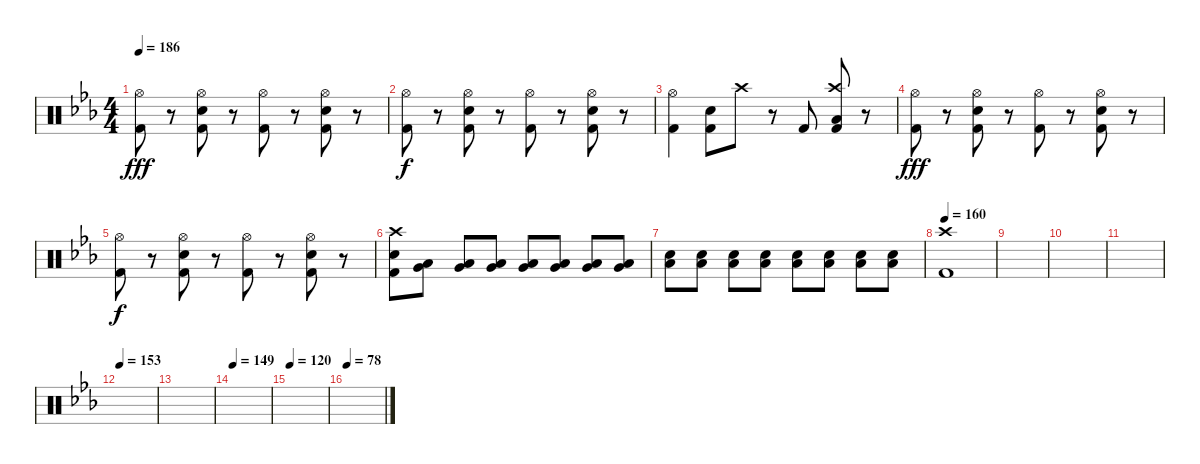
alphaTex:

\track "" {instrument percussion}
\staff {score}
\articulation defaults
\ts (4 4)
\tempo 186
\clef neutral
\ks eb
("Hi-Hat (open)" "Kick (hit) 2").8{dy fff} r.8 ("Hi-Hat (open)" "Snare (hit) 2" "Kick (hit) 2").8 r.8 ("Hi-Hat (open)" "Kick (hit) 2").8 r.8 ("Hi-Hat (open)" "Snare (hit) 2" "Kick (hit) 2").8 r.8 |
("Hi-Hat (open)" "Kick (hit) 2").8{dy f} r.8 ("Hi-Hat (open)" "Snare (hit) 2" "Kick (hit) 2").8 r.8 ("Hi-Hat (open)" "Kick (hit) 2").8 r.8 ("Hi-Hat (open)" "Snare (hit) 2" "Kick (hit) 2").8 r.8 |
("Hi-Hat (open)" "Kick (hit) 2").4 ("Snare (hit) 2" "Kick (hit) 2").8 "Crash high (hit)".8 r.8 "Kick (hit) 2".8 ("Crash high (hit)" "Low Tom (hit)" "Kick (hit) 2").8 r.8 |
("Hi-Hat (open)" "Kick (hit) 2").8{dy fff} r.8 ("Hi-Hat (open)" "Snare (hit) 2" "Kick (hit) 2").8 r.8 ("Hi-Hat (open)" "Kick (hit) 2").8 r.8 ("Hi-Hat (open)" "Snare (hit) 2" "Kick (hit) 2").8 r.8 |
("Hi-Hat (open)" "Kick (hit) 2").8{dy f} r.8 ("Hi-Hat (open)" "Snare (hit) 2" "Kick (hit) 2").8 r.8 ("Hi-Hat (open)" "Kick (hit) 2").8 r.8 ("Hi-Hat (open)" "Snare (hit) 2" "Kick (hit) 2").8 r.8 |
("Crash high (hit)" "Snare (hit) 2" "Kick (hit) 2").8 ("Low Tom (hit)" "Very Low Tom (hit)").8 ("Low Tom (hit)" "Very Low Tom (hit)").8 ("Low Tom (hit)" "Very Low Tom (hit)").8 ("Low Tom (hit)" "Very Low Tom (hit)").8 ("Low Tom (hit)" "Very Low Tom (hit)").8 ("Low Tom (hit)" "Very Low Tom (hit)").8 ("Low Tom (hit)" "Very Low Tom (hit)").8 |
("Snare (hit) 2" "Low Tom (hit)").8 ("Snare (hit) 2" "Low Tom (hit)").8 ("Snare (hit) 2" "Low Tom (hit)").8 ("Snare (hit) 2" "Low Tom (hit)").8 ("Snare (hit) 2" "Low Tom (hit)").8 ("Snare (hit) 2" "Low Tom (hit)").8 ("Snare (hit) 2" "Low Tom (hit)").8 ("Snare (hit) 2" "Low Tom (hit)").8 |
\tempo 160
("Crash high (hit)" "Kick (hit) 2").1 |
|
|
|
\tempo 153
|
|
\tempo 149
|
\tempo 120
|
\tempo 78
